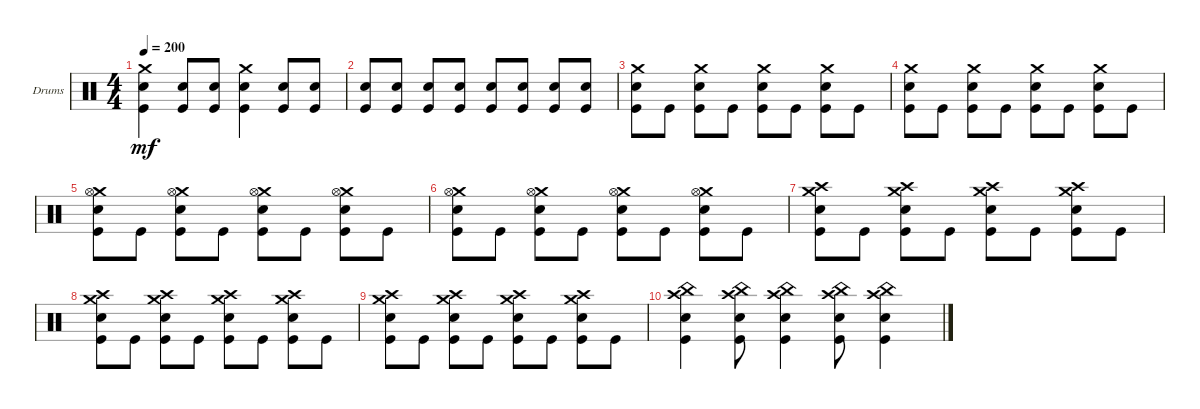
\bracketExtendMode groupsimilarinstruments
\firstSystemTrackNameOrientation horizontal
\otherSystemsTrackNameOrientation horizontal
\track ("Drumkit" "Drums") {instrument percussion}
\staff {score}
\articulation defaults
\ts (4 4)
\tempo 200
\clef neutral
\ks c
("Kick (hit)" "Snare (hit) 2" "Crash medium (hit)").4{dy mf} ("Kick (hit)" "Snare (hit) 2").8 ("Kick (hit)" "Snare (hit) 2").8 ("Kick (hit)" "Snare (hit) 2" "Crash medium (hit)").4 ("Kick (hit)" "Snare (hit) 2").8 ("Kick (hit)" "Snare (hit) 2").8 |
("Snare (hit) 2" "Kick (hit)").8 ("Snare (hit) 2" "Kick (hit)").8 ("Snare (hit) 2" "Kick (hit)").8 ("Snare (hit) 2" "Kick (hit)").8 ("Snare (hit) 2" "Kick (hit)").8 ("Snare (hit) 2" "Kick (hit)").8 ("Snare (hit) 2" "Kick (hit)").8 ("Snare (hit) 2" "Kick (hit)").8 |
("Kick (hit)" "Snare (hit) 2" "Crash medium (hit)").8 "Kick (hit)".8 ("Kick (hit)" "Snare (hit) 2" "Crash medium (hit)").8 "Kick (hit)".8 ("Kick (hit)" "Snare (hit) 2" "Crash medium (hit)").8 "Kick (hit)".8 ("Kick (hit)" "Snare (hit) 2" "Crash medium (hit)").8 "Kick (hit)".8 |
("Kick (hit)" "Snare (hit) 2" "Crash medium (hit)").8 "Kick (hit)".8 ("Kick (hit)" "Snare (hit) 2" "Crash medium (hit)").8 "Kick (hit)".8 ("Kick (hit)" "Snare (hit) 2" "Crash medium (hit)").8 "Kick (hit)".8 ("Kick (hit)" "Snare (hit) 2" "Crash medium (hit)").8 "Kick (hit)".8 |
("Kick (hit)" "Snare (hit) 2" "Crash medium (hit)" "Hi-Hat (open)").8 "Kick (hit)".8 ("Kick (hit)" "Snare (hit) 2" "Crash medium (hit)" "Hi-Hat (open)").8 "Kick (hit)".8 ("Kick (hit)" "Snare (hit) 2" "Crash medium (hit)" "Hi-Hat (open)").8 "Kick (hit)".8 ("Kick (hit)" "Snare (hit) 2" "Crash medium (hit)" "Hi-Hat (open)").8 "Kick (hit)".8 |
("Kick (hit)" "Snare (hit) 2" "Crash medium (hit)" "Hi-Hat (open)").8 "Kick (hit)".8 ("Kick (hit)" "Snare (hit) 2" "Crash medium (hit)" "Hi-Hat (open)").8 "Kick (hit)".8 ("Kick (hit)" "Snare (hit) 2" "Crash medium (hit)" "Hi-Hat (open)").8 "Kick (hit)".8 ("Kick (hit)" "Snare (hit) 2" "Crash medium (hit)" "Hi-Hat (open)").8 "Kick (hit)".8 |
("Kick (hit)" "Snare (hit) 2" "Crash medium (hit)" "Crash high (hit)").8 "Kick (hit)".8 ("Kick (hit)" "Snare (hit) 2" "Crash medium (hit)" "Crash high (hit)").8 "Kick (hit)".8 ("Kick (hit)" "Snare (hit) 2" "Crash medium (hit)" "Crash high (hit)").8 "Kick (hit)".8 ("Kick (hit)" "Snare (hit) 2" "Crash medium (hit)" "Crash high (hit)").8 "Kick (hit)".8 |
("Kick (hit)" "Snare (hit) 2" "Crash medium (hit)" "Crash high (hit)").8 "Kick (hit)".8 ("Kick (hit)" "Snare (hit) 2" "Crash medium (hit)" "Crash high (hit)").8 "Kick (hit)".8 ("Kick (hit)" "Snare (hit) 2" "Crash medium (hit)" "Crash high (hit)").8 "Kick (hit)".8 ("Kick (hit)" "Snare (hit) 2" "Crash medium (hit)" "Crash high (hit)").8 "Kick (hit)".8 |
("Kick (hit)" "Snare (hit) 2" "Crash medium (hit)" "Crash high (hit)").8 "Kick (hit)".8 ("Kick (hit)" "Snare (hit) 2" "Crash medium (hit)" "Crash high (hit)").8 "Kick (hit)".8 ("Kick (hit)" "Snare (hit) 2" "Crash medium (hit)" "Crash high (hit)").8 "Kick (hit)".8 ("Kick (hit)" "Snare (hit) 2" "Crash medium (hit)" "Crash high (hit)").8 "Kick (hit)".8 |
("Kick (hit)" "Snare (hit) 2" "China (hit)" "Crash high (hit)").4 ("Kick (hit)" "Snare (hit) 2" "China (hit)" "Crash high (hit)").8 ("Kick (hit)" "Snare (hit) 2" "China (hit)" "Crash high (hit)").4 ("Kick (hit)" "Snare (hit) 2" "China (hit)" "Crash high (hit)").8 ("Kick (hit)" "Snare (hit) 2" "China (hit)" "Crash high (hit)").4
